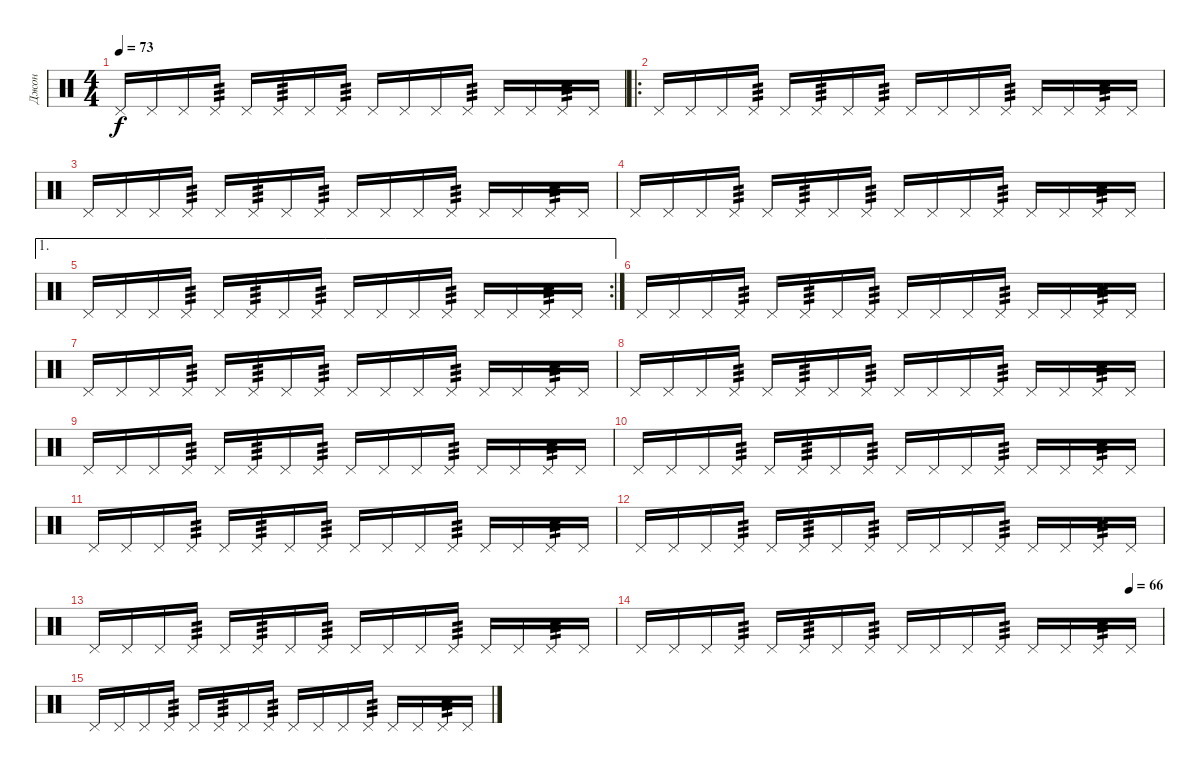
\track ("Джон" "Джон") {instrument percussion}
\staff {score}
\articulation defaults
\ts (4 4)
\tempo 73
\clef neutral
\ks c "Pedal Hi-Hat (hit)".16{dy f} "Pedal Hi-Hat (hit)".16 "Pedal Hi-Hat (hit)".16 "Pedal Hi-Hat (hit)".16{tp 3} "Pedal Hi-Hat (hit)".16 "Pedal Hi-Hat (hit)".16{tp 3} "Pedal Hi-Hat (hit)".16 "Pedal Hi-Hat (hit)".16{tp 3} "Pedal Hi-Hat (hit)".16 "Pedal Hi-Hat (hit)".16 "Pedal Hi-Hat (hit)".16 "Pedal Hi-Hat (hit)".16{tp 3} "Pedal Hi-Hat (hit)".16 "Pedal Hi-Hat (hit)".16 "Pedal Hi-Hat (hit)".16{tp 3} "Pedal Hi-Hat (hit)".16
|
\ro "Pedal Hi-Hat (hit)".16 "Pedal Hi-Hat (hit)".16 "Pedal Hi-Hat (hit)".16 "Pedal Hi-Hat (hit)".16{tp 3} "Pedal Hi-Hat (hit)".16 "Pedal Hi-Hat (hit)".16{tp 3} "Pedal Hi-Hat (hit)".16 "Pedal Hi-Hat (hit)".16{tp 3} "Pedal Hi-Hat (hit)".16 "Pedal Hi-Hat (hit)".16 "Pedal Hi-Hat (hit)".16 "Pedal Hi-Hat (hit)".16{tp 3} "Pedal Hi-Hat (hit)".16 "Pedal Hi-Hat (hit)".16 "Pedal Hi-Hat (hit)".16{tp 3} "Pedal Hi-Hat (hit)".16
|
"Pedal Hi-Hat (hit)".16 "Pedal Hi-Hat (hit)".16 "Pedal Hi-Hat (hit)".16 "Pedal Hi-Hat (hit)".16{tp 3} "Pedal Hi-Hat (hit)".16 "Pedal Hi-Hat (hit)".16{tp 3} "Pedal Hi-Hat (hit)".16 "Pedal Hi-Hat (hit)".16{tp 3} "Pedal Hi-Hat (hit)".16 "Pedal Hi-Hat (hit)".16 "Pedal Hi-Hat (hit)".16 "Pedal Hi-Hat (hit)".16{tp 3} "Pedal Hi-Hat (hit)".16 "Pedal Hi-Hat (hit)".16 "Pedal Hi-Hat (hit)".16{tp 3} "Pedal Hi-Hat (hit)".16 |
"Pedal Hi-Hat (hit)".16 "Pedal Hi-Hat (hit)".16 "Pedal Hi-Hat (hit)".16 "Pedal Hi-Hat (hit)".16{tp 3} "Pedal Hi-Hat (hit)".16 "Pedal Hi-Hat (hit)".16{tp 3} "Pedal Hi-Hat (hit)".16 "Pedal Hi-Hat (hit)".16{tp 3} "Pedal Hi-Hat (hit)".16 "Pedal Hi-Hat (hit)".16 "Pedal Hi-Hat (hit)".16 "Pedal Hi-Hat (hit)".16{tp 3} "Pedal Hi-Hat (hit)".16 "Pedal Hi-Hat (hit)".16 "Pedal Hi-Hat (hit)".16{tp 3} "Pedal Hi-Hat (hit)".16 |
\ae 1
\rc 2 "Pedal Hi-Hat (hit)".16 "Pedal Hi-Hat (hit)".16 "Pedal Hi-Hat (hit)".16 "Pedal Hi-Hat (hit)".16{tp 3} "Pedal Hi-Hat (hit)".16 "Pedal Hi-Hat (hit)".16{tp 3} "Pedal Hi-Hat (hit)".16 "Pedal Hi-Hat (hit)".16{tp 3} "Pedal Hi-Hat (hit)".16 "Pedal Hi-Hat (hit)".16 "Pedal Hi-Hat (hit)".16 "Pedal Hi-Hat (hit)".16{tp 3} "Pedal Hi-Hat (hit)".16 "Pedal Hi-Hat (hit)".16 "Pedal Hi-Hat (hit)".16{tp 3} "Pedal Hi-Hat (hit)".16
|
"Pedal Hi-Hat (hit)".16 "Pedal Hi-Hat (hit)".16 "Pedal Hi-Hat (hit)".16 "Pedal Hi-Hat (hit)".16{tp 3} "Pedal Hi-Hat (hit)".16 "Pedal Hi-Hat (hit)".16{tp 3} "Pedal Hi-Hat (hit)".16 "Pedal Hi-Hat (hit)".16{tp 3} "Pedal Hi-Hat (hit)".16 "Pedal Hi-Hat (hit)".16 "Pedal Hi-Hat (hit)".16 "Pedal Hi-Hat (hit)".16{tp 3} "Pedal Hi-Hat (hit)".16 "Pedal Hi-Hat (hit)".16 "Pedal Hi-Hat (hit)".16{tp 3} "Pedal Hi-Hat (hit)".16 |
"Pedal Hi-Hat (hit)".16 "Pedal Hi-Hat (hit)".16 "Pedal Hi-Hat (hit)".16 "Pedal Hi-Hat (hit)".16{tp 3} "Pedal Hi-Hat (hit)".16 "Pedal Hi-Hat (hit)".16{tp 3} "Pedal Hi-Hat (hit)".16 "Pedal Hi-Hat (hit)".16{tp 3} "Pedal Hi-Hat (hit)".16 "Pedal Hi-Hat (hit)".16 "Pedal Hi-Hat (hit)".16 "Pedal Hi-Hat (hit)".16{tp 3} "Pedal Hi-Hat (hit)".16 "Pedal Hi-Hat (hit)".16 "Pedal Hi-Hat (hit)".16{tp 3} "Pedal Hi-Hat (hit)".16 |
"Pedal Hi-Hat (hit)".16 "Pedal Hi-Hat (hit)".16 "Pedal Hi-Hat (hit)".16 "Pedal Hi-Hat (hit)".16{tp 3} "Pedal Hi-Hat (hit)".16 "Pedal Hi-Hat (hit)".16{tp 3} "Pedal Hi-Hat (hit)".16 "Pedal Hi-Hat (hit)".16{tp 3} "Pedal Hi-Hat (hit)".16 "Pedal Hi-Hat (hit)".16 "Pedal Hi-Hat (hit)".16 "Pedal Hi-Hat (hit)".16{tp 3} "Pedal Hi-Hat (hit)".16 "Pedal Hi-Hat (hit)".16 "Pedal Hi-Hat (hit)".16{tp 3} "Pedal Hi-Hat (hit)".16 |
"Pedal Hi-Hat (hit)".16 "Pedal Hi-Hat (hit)".16 "Pedal Hi-Hat (hit)".16 "Pedal Hi-Hat (hit)".16{tp 3} "Pedal Hi-Hat (hit)".16 "Pedal Hi-Hat (hit)".16{tp 3} "Pedal Hi-Hat (hit)".16 "Pedal Hi-Hat (hit)".16{tp 3} "Pedal Hi-Hat (hit)".16 "Pedal Hi-Hat (hit)".16 "Pedal Hi-Hat (hit)".16 "Pedal Hi-Hat (hit)".16{tp 3} "Pedal Hi-Hat (hit)".16 "Pedal Hi-Hat (hit)".16 "Pedal Hi-Hat (hit)".16{tp 3} "Pedal Hi-Hat (hit)".16 |
"Pedal Hi-Hat (hit)".16 "Pedal Hi-Hat (hit)".16 "Pedal Hi-Hat (hit)".16 "Pedal Hi-Hat (hit)".16{tp 3} "Pedal Hi-Hat (hit)".16 "Pedal Hi-Hat (hit)".16{tp 3} "Pedal Hi-Hat (hit)".16 "Pedal Hi-Hat (hit)".16{tp 3} "Pedal Hi-Hat (hit)".16 "Pedal Hi-Hat (hit)".16 "Pedal Hi-Hat (hit)".16 "Pedal Hi-Hat (hit)".16{tp 3} "Pedal Hi-Hat (hit)".16 "Pedal Hi-Hat (hit)".16 "Pedal Hi-Hat (hit)".16{tp 3} "Pedal Hi-Hat (hit)".16 |
"Pedal Hi-Hat (hit)".16 "Pedal Hi-Hat (hit)".16 "Pedal Hi-Hat (hit)".16 "Pedal Hi-Hat (hit)".16{tp 3} "Pedal Hi-Hat (hit)".16 "Pedal Hi-Hat (hit)".16{tp 3} "Pedal Hi-Hat (hit)".16 "Pedal Hi-Hat (hit)".16{tp 3} "Pedal Hi-Hat (hit)".16 "Pedal Hi-Hat (hit)".16 "Pedal Hi-Hat (hit)".16 "Pedal Hi-Hat (hit)".16{tp 3} "Pedal Hi-Hat (hit)".16 "Pedal Hi-Hat (hit)".16 "Pedal Hi-Hat (hit)".16{tp 3} "Pedal Hi-Hat (hit)".16 |
"Pedal Hi-Hat (hit)".16 "Pedal Hi-Hat (hit)".16 "Pedal Hi-Hat (hit)".16 "Pedal Hi-Hat (hit)".16{tp 3} "Pedal Hi-Hat (hit)".16 "Pedal Hi-Hat (hit)".16{tp 3} "Pedal Hi-Hat (hit)".16 "Pedal Hi-Hat (hit)".16{tp 3} "Pedal Hi-Hat (hit)".16 "Pedal Hi-Hat (hit)".16 "Pedal Hi-Hat (hit)".16 "Pedal Hi-Hat (hit)".16{tp 3} "Pedal Hi-Hat (hit)".16 "Pedal Hi-Hat (hit)".16 "Pedal Hi-Hat (hit)".16{tp 3} "Pedal Hi-Hat (hit)".16 |
"Pedal Hi-Hat (hit)".16 "Pedal Hi-Hat (hit)".16 "Pedal Hi-Hat (hit)".16 "Pedal Hi-Hat (hit)".16{tp 3} "Pedal Hi-Hat (hit)".16 "Pedal Hi-Hat (hit)".16{tp 3} "Pedal Hi-Hat (hit)".16 "Pedal Hi-Hat (hit)".16{tp 3} "Pedal Hi-Hat (hit)".16 "Pedal Hi-Hat (hit)".16 "Pedal Hi-Hat (hit)".16 "Pedal Hi-Hat (hit)".16{tp 3} "Pedal Hi-Hat (hit)".16 "Pedal Hi-Hat (hit)".16 "Pedal Hi-Hat (hit)".16{tp 3} "Pedal Hi-Hat (hit)".16 |
\tempo (66 0.9375)
"Pedal Hi-Hat (hit)".16 "Pedal Hi-Hat (hit)".16 "Pedal Hi-Hat (hit)".16 "Pedal Hi-Hat (hit)".16{tp 3} "Pedal Hi-Hat (hit)".16 "Pedal Hi-Hat (hit)".16{tp 3} "Pedal Hi-Hat (hit)".16 "Pedal Hi-Hat (hit)".16{tp 3} "Pedal Hi-Hat (hit)".16 "Pedal Hi-Hat (hit)".16 "Pedal Hi-Hat (hit)".16 "Pedal Hi-Hat (hit)".16{tp 3} "Pedal Hi-Hat (hit)".16 "Pedal Hi-Hat (hit)".16 "Pedal Hi-Hat (hit)".16{tp 3} "Pedal Hi-Hat (hit)".16 |
"Pedal Hi-Hat (hit)".16 "Pedal Hi-Hat (hit)".16 "Pedal Hi-Hat (hit)".16 "Pedal Hi-Hat (hit)".16{tp 3} "Pedal Hi-Hat (hit)".16 "Pedal Hi-Hat (hit)".16{tp 3} "Pedal Hi-Hat (hit)".16 "Pedal Hi-Hat (hit)".16{tp 3} "Pedal Hi-Hat (hit)".16 "Pedal Hi-Hat (hit)".16 "Pedal Hi-Hat (hit)".16 "Pedal Hi-Hat (hit)".16{tp 3} "Pedal Hi-Hat (hit)".16 "Pedal Hi-Hat (hit)".16 "Pedal Hi-Hat (hit)".16{tp 3} "Pedal Hi-Hat (hit)".16
